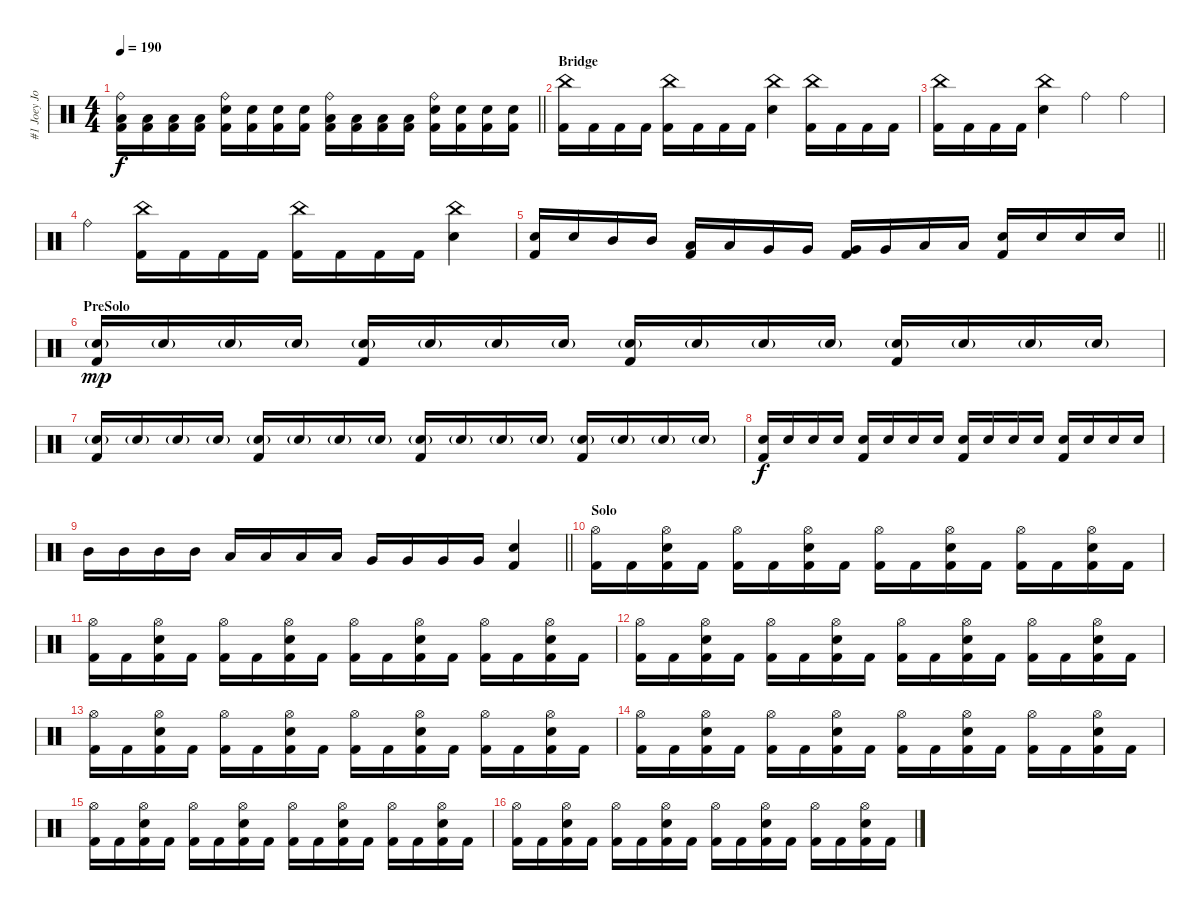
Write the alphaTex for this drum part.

\track ("#1 Joey Jordison" "#1 Joey Jo") {instrument percussion}
\staff {score}
\articulation defaults
\ts (4 4)
\tempo 190
\clef neutral
\barLineRight lightlight
\ks c
("Ride (bell)" "Low Floor Tom (hit)" "Kick (hit) 2").16{dy f} ("Low Floor Tom (hit)" "Kick (hit) 2").16 ("Low Floor Tom (hit)" "Kick (hit) 2").16 ("Low Floor Tom (hit)" "Kick (hit) 2").16 ("Ride (bell)" "Electric Snare (hit)" "Kick (hit) 2").16 ("Electric Snare (hit)" "Kick (hit) 2").16 ("Electric Snare (hit)" "Kick (hit) 2").16 ("Electric Snare (hit)" "Kick (hit) 2").16 ("Ride (bell)" "Low Floor Tom (hit)" "Kick (hit) 2").16 ("Low Floor Tom (hit)" "Kick (hit) 2").16 ("Low Floor Tom (hit)" "Kick (hit) 2").16 ("Low Floor Tom (hit)" "Kick (hit) 2").16 ("Ride (bell)" "Electric Snare (hit)" "Kick (hit) 2").16 ("Electric Snare (hit)" "Kick (hit) 2").16 ("Electric Snare (hit)" "Kick (hit) 2").16 ("Electric Snare (hit)" "Kick (hit) 2").16 |
\section ("" "Bridge")
("China (hit)" "Kick (hit) 2").16 "Kick (hit) 2".16 "Kick (hit) 2".16 "Kick (hit) 2".16 ("China (hit)" "Kick (hit) 2").16 "Kick (hit) 2".16 "Kick (hit) 2".16 "Kick (hit) 2".16 ("China (hit)" "Electric Snare (hit)").4 ("China (hit)" "Kick (hit) 2").16 "Kick (hit) 2".16 "Kick (hit) 2".16 "Kick (hit) 2".16 |
("China (hit)" "Kick (hit) 2").16 "Kick (hit) 2".16 "Kick (hit) 2".16 "Kick (hit) 2".16 ("China (hit)" "Electric Snare (hit)").4 "Ride (bell)".4 "Ride (bell)".4 |
"Ride (bell)".4 ("China (hit)" "Kick (hit) 2").16 "Kick (hit) 2".16 "Kick (hit) 2".16 "Kick (hit) 2".16 ("China (hit)" "Kick (hit) 2").16 "Kick (hit) 2".16 "Kick (hit) 2".16 "Kick (hit) 2".16 ("China (hit)" "Electric Snare (hit)").4 |
\barLineRight lightlight
("Electric Snare (hit)" "Kick (hit) 2").16 "Electric Snare (hit)".16 "Mid Tom (hit)".16 "Mid Tom (hit)".16 ("Low Tom (hit)" "Kick (hit) 2").16 "Low Tom (hit)".16 "Very Low Tom (hit)".16 "Very Low Tom (hit)".16 ("Very Low Tom (hit)" "Kick (hit) 2").16 "Very Low Tom (hit)".16 "Low Floor Tom (hit)".16 "Low Floor Tom (hit)".16 ("Electric Snare (hit)" "Kick (hit) 2").16 "Electric Snare (hit)".16 "Electric Snare (hit)".16 "Electric Snare (hit)".16 |
\section ("" "PreSolo")
("Electric Snare (hit)"{g} "Kick (hit) 2").16{dy mp} "Electric Snare (hit)"{g}.16 "Electric Snare (hit)"{g}.16 "Electric Snare (hit)"{g}.16 ("Electric Snare (hit)"{g} "Kick (hit) 2").16 "Electric Snare (hit)"{g}.16 "Electric Snare (hit)"{g}.16 "Electric Snare (hit)"{g}.16 ("Electric Snare (hit)"{g} "Kick (hit) 2").16 "Electric Snare (hit)"{g}.16 "Electric Snare (hit)"{g}.16 "Electric Snare (hit)"{g}.16 ("Electric Snare (hit)"{g} "Kick (hit) 2").16 "Electric Snare (hit)"{g}.16 "Electric Snare (hit)"{g}.16 "Electric Snare (hit)"{g}.16 |
("Electric Snare (hit)"{g} "Kick (hit) 2").16 "Electric Snare (hit)"{g}.16 "Electric Snare (hit)"{g}.16 "Electric Snare (hit)"{g}.16 ("Electric Snare (hit)"{g} "Kick (hit) 2").16 "Electric Snare (hit)"{g}.16 "Electric Snare (hit)"{g}.16 "Electric Snare (hit)"{g}.16 ("Electric Snare (hit)"{g} "Kick (hit) 2").16 "Electric Snare (hit)"{g}.16 "Electric Snare (hit)"{g}.16 "Electric Snare (hit)"{g}.16 ("Electric Snare (hit)"{g} "Kick (hit) 2").16 "Electric Snare (hit)"{g}.16 "Electric Snare (hit)"{g}.16 "Electric Snare (hit)"{g}.16 |
("Electric Snare (hit)" "Kick (hit) 2").16{dy f} "Electric Snare (hit)".16 "Electric Snare (hit)".16 "Electric Snare (hit)".16 ("Electric Snare (hit)" "Kick (hit) 2").16 "Electric Snare (hit)".16 "Electric Snare (hit)".16 "Electric Snare (hit)".16 ("Electric Snare (hit)" "Kick (hit) 2").16 "Electric Snare (hit)".16 "Electric Snare (hit)".16 "Electric Snare (hit)".16 ("Electric Snare (hit)" "Kick (hit) 2").16 "Electric Snare (hit)".16 "Electric Snare (hit)".16 "Electric Snare (hit)".16 |
\barLineRight lightlight "Mid Tom (hit)".16 "Mid Tom (hit)".16 "Mid Tom (hit)".16 "Mid Tom (hit)".16 "Low Tom (hit)".16 "Low Tom (hit)".16 "Low Tom (hit)".16 "Low Tom (hit)".16 "Very Low Tom (hit)".16 "Very Low Tom (hit)".16 "Very Low Tom (hit)".16 "Very Low Tom (hit)".16
("Electric Snare (hit)" "Kick (hit) 2").4 |
\section ("" "Solo")
("Hi-Hat (open)" "Kick (hit) 2").16 "Kick (hit) 2".16 ("Hi-Hat (open)" "Electric Snare (hit)" "Kick (hit) 2").16 "Kick (hit) 2".16 ("Hi-Hat (open)" "Kick (hit) 2").16 "Kick (hit) 2".16 ("Hi-Hat (open)" "Electric Snare (hit)" "Kick (hit) 2").16 "Kick (hit) 2".16 ("Hi-Hat (open)" "Kick (hit) 2").16 "Kick (hit) 2".16 ("Hi-Hat (open)" "Electric Snare (hit)" "Kick (hit) 2").16 "Kick (hit) 2".16 ("Hi-Hat (open)" "Kick (hit) 2").16 "Kick (hit) 2".16 ("Hi-Hat (open)" "Electric Snare (hit)" "Kick (hit) 2").16 "Kick (hit) 2".16 |
("Hi-Hat (open)" "Kick (hit) 2").16 "Kick (hit) 2".16 ("Hi-Hat (open)" "Electric Snare (hit)" "Kick (hit) 2").16 "Kick (hit) 2".16 ("Hi-Hat (open)" "Kick (hit) 2").16 "Kick (hit) 2".16 ("Hi-Hat (open)" "Electric Snare (hit)" "Kick (hit) 2").16 "Kick (hit) 2".16 ("Hi-Hat (open)" "Kick (hit) 2").16 "Kick (hit) 2".16 ("Hi-Hat (open)" "Electric Snare (hit)" "Kick (hit) 2").16 "Kick (hit) 2".16 ("Hi-Hat (open)" "Kick (hit) 2").16 "Kick (hit) 2".16 ("Hi-Hat (open)" "Electric Snare (hit)" "Kick (hit) 2").16 "Kick (hit) 2".16 |
("Hi-Hat (open)" "Kick (hit) 2").16 "Kick (hit) 2".16 ("Hi-Hat (open)" "Electric Snare (hit)" "Kick (hit) 2").16 "Kick (hit) 2".16 ("Hi-Hat (open)" "Kick (hit) 2").16 "Kick (hit) 2".16 ("Hi-Hat (open)" "Electric Snare (hit)" "Kick (hit) 2").16 "Kick (hit) 2".16 ("Hi-Hat (open)" "Kick (hit) 2").16 "Kick (hit) 2".16 ("Hi-Hat (open)" "Electric Snare (hit)" "Kick (hit) 2").16 "Kick (hit) 2".16 ("Hi-Hat (open)" "Kick (hit) 2").16 "Kick (hit) 2".16 ("Hi-Hat (open)" "Electric Snare (hit)" "Kick (hit) 2").16 "Kick (hit) 2".16 |
("Hi-Hat (open)" "Kick (hit) 2").16 "Kick (hit) 2".16 ("Hi-Hat (open)" "Electric Snare (hit)" "Kick (hit) 2").16 "Kick (hit) 2".16 ("Hi-Hat (open)" "Kick (hit) 2").16 "Kick (hit) 2".16 ("Hi-Hat (open)" "Electric Snare (hit)" "Kick (hit) 2").16 "Kick (hit) 2".16 ("Hi-Hat (open)" "Kick (hit) 2").16 "Kick (hit) 2".16 ("Hi-Hat (open)" "Electric Snare (hit)" "Kick (hit) 2").16 "Kick (hit) 2".16 ("Hi-Hat (open)" "Kick (hit) 2").16 "Kick (hit) 2".16 ("Hi-Hat (open)" "Electric Snare (hit)" "Kick (hit) 2").16 "Kick (hit) 2".16 |
("Hi-Hat (open)" "Kick (hit) 2").16 "Kick (hit) 2".16 ("Hi-Hat (open)" "Electric Snare (hit)" "Kick (hit) 2").16 "Kick (hit) 2".16 ("Hi-Hat (open)" "Kick (hit) 2").16 "Kick (hit) 2".16 ("Hi-Hat (open)" "Electric Snare (hit)" "Kick (hit) 2").16 "Kick (hit) 2".16 ("Hi-Hat (open)" "Kick (hit) 2").16 "Kick (hit) 2".16 ("Hi-Hat (open)" "Electric Snare (hit)" "Kick (hit) 2").16 "Kick (hit) 2".16 ("Hi-Hat (open)" "Kick (hit) 2").16 "Kick (hit) 2".16 ("Hi-Hat (open)" "Electric Snare (hit)" "Kick (hit) 2").16 "Kick (hit) 2".16 |
("Hi-Hat (open)" "Kick (hit) 2").16 "Kick (hit) 2".16 ("Hi-Hat (open)" "Electric Snare (hit)" "Kick (hit) 2").16 "Kick (hit) 2".16 ("Hi-Hat (open)" "Kick (hit) 2").16 "Kick (hit) 2".16 ("Hi-Hat (open)" "Electric Snare (hit)" "Kick (hit) 2").16 "Kick (hit) 2".16 ("Hi-Hat (open)" "Kick (hit) 2").16 "Kick (hit) 2".16 ("Hi-Hat (open)" "Electric Snare (hit)" "Kick (hit) 2").16 "Kick (hit) 2".16 ("Hi-Hat (open)" "Kick (hit) 2").16 "Kick (hit) 2".16 ("Hi-Hat (open)" "Electric Snare (hit)" "Kick (hit) 2").16 "Kick (hit) 2".16 |
("Hi-Hat (open)" "Kick (hit) 2").16 "Kick (hit) 2".16 ("Hi-Hat (open)" "Electric Snare (hit)" "Kick (hit) 2").16 "Kick (hit) 2".16 ("Hi-Hat (open)" "Kick (hit) 2").16 "Kick (hit) 2".16 ("Hi-Hat (open)" "Electric Snare (hit)" "Kick (hit) 2").16 "Kick (hit) 2".16 ("Hi-Hat (open)" "Kick (hit) 2").16 "Kick (hit) 2".16 ("Hi-Hat (open)" "Electric Snare (hit)" "Kick (hit) 2").16 "Kick (hit) 2".16 ("Hi-Hat (open)" "Kick (hit) 2").16 "Kick (hit) 2".16 ("Hi-Hat (open)" "Electric Snare (hit)" "Kick (hit) 2").16 "Kick (hit) 2".16
